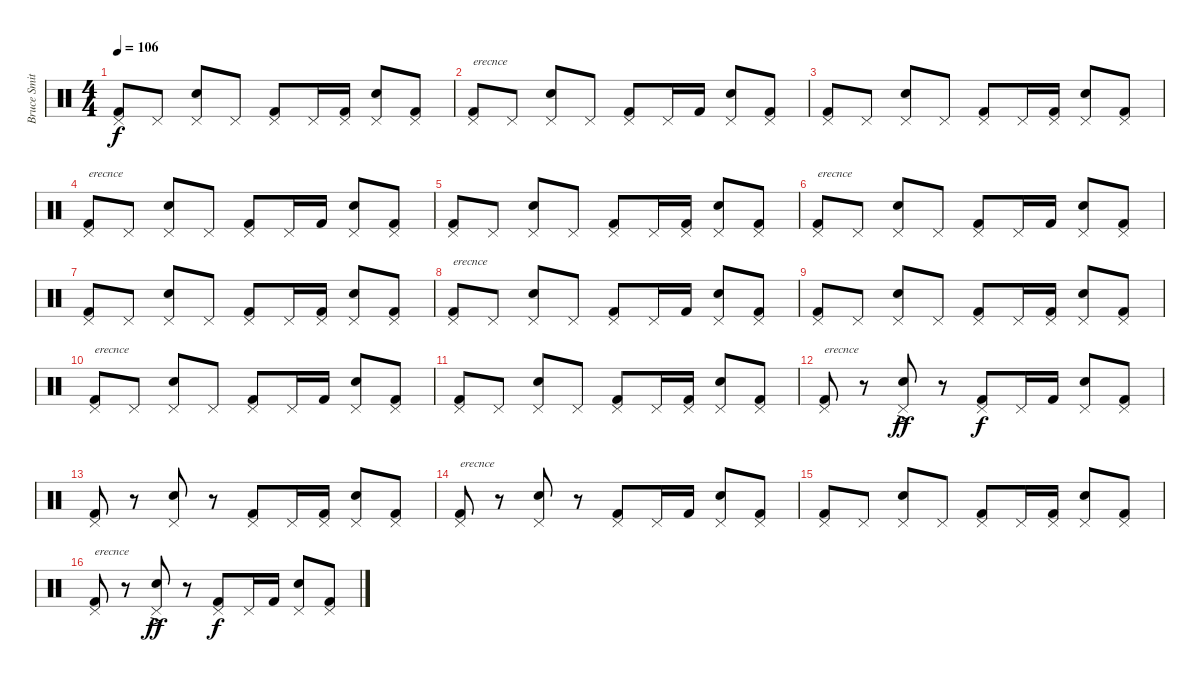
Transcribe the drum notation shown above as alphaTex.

\track ("Bruce Smith" "Bruce Smit") {instrument percussion}
\staff {score}
\articulation defaults
\ts (4 4)
\tempo 106
\clef neutral
\ks c
("Pedal Hi-Hat (hit)" "Kick (hit) 2").8{dy f} "Pedal Hi-Hat (hit)".8 ("Pedal Hi-Hat (hit)" "Snare (hit) 2").8 "Pedal Hi-Hat (hit)".8 ("Pedal Hi-Hat (hit)" "Kick (hit) 2").8 "Pedal Hi-Hat (hit)".16 ("Pedal Hi-Hat (hit)" "Kick (hit) 2").16 ("Pedal Hi-Hat (hit)" "Snare (hit) 2").8 ("Pedal Hi-Hat (hit)" "Kick (hit) 2").8 |
("Pedal Hi-Hat (hit)" "Kick (hit) 2").8{txt "erecnce"} "Pedal Hi-Hat (hit)".8 ("Pedal Hi-Hat (hit)" "Snare (hit) 2").8 "Pedal Hi-Hat (hit)".8 ("Pedal Hi-Hat (hit)" "Kick (hit) 2").8 "Pedal Hi-Hat (hit)".16 "Kick (hit) 2".16 ("Pedal Hi-Hat (hit)" "Snare (hit) 2").8 ("Pedal Hi-Hat (hit)" "Kick (hit) 2").8 |
("Pedal Hi-Hat (hit)" "Kick (hit) 2").8 "Pedal Hi-Hat (hit)".8 ("Pedal Hi-Hat (hit)" "Snare (hit) 2").8 "Pedal Hi-Hat (hit)".8 ("Pedal Hi-Hat (hit)" "Kick (hit) 2").8 "Pedal Hi-Hat (hit)".16 ("Pedal Hi-Hat (hit)" "Kick (hit) 2").16 ("Pedal Hi-Hat (hit)" "Snare (hit) 2").8 ("Pedal Hi-Hat (hit)" "Kick (hit) 2").8 |
("Pedal Hi-Hat (hit)" "Kick (hit) 2").8{txt "erecnce"} "Pedal Hi-Hat (hit)".8 ("Pedal Hi-Hat (hit)" "Snare (hit) 2").8 "Pedal Hi-Hat (hit)".8 ("Pedal Hi-Hat (hit)" "Kick (hit) 2").8 "Pedal Hi-Hat (hit)".16 "Kick (hit) 2".16 ("Pedal Hi-Hat (hit)" "Snare (hit) 2").8 ("Pedal Hi-Hat (hit)" "Kick (hit) 2").8 |
("Pedal Hi-Hat (hit)" "Kick (hit) 2").8 "Pedal Hi-Hat (hit)".8 ("Pedal Hi-Hat (hit)" "Snare (hit) 2").8 "Pedal Hi-Hat (hit)".8 ("Pedal Hi-Hat (hit)" "Kick (hit) 2").8 "Pedal Hi-Hat (hit)".16 ("Pedal Hi-Hat (hit)" "Kick (hit) 2").16 ("Pedal Hi-Hat (hit)" "Snare (hit) 2").8 ("Pedal Hi-Hat (hit)" "Kick (hit) 2").8 |
("Pedal Hi-Hat (hit)" "Kick (hit) 2").8{txt "erecnce"} "Pedal Hi-Hat (hit)".8 ("Pedal Hi-Hat (hit)" "Snare (hit) 2").8 "Pedal Hi-Hat (hit)".8 ("Pedal Hi-Hat (hit)" "Kick (hit) 2").8 "Pedal Hi-Hat (hit)".16 "Kick (hit) 2".16 ("Pedal Hi-Hat (hit)" "Snare (hit) 2").8 ("Pedal Hi-Hat (hit)" "Kick (hit) 2").8 |
("Pedal Hi-Hat (hit)" "Kick (hit) 2").8 "Pedal Hi-Hat (hit)".8 ("Pedal Hi-Hat (hit)" "Snare (hit) 2").8 "Pedal Hi-Hat (hit)".8 ("Pedal Hi-Hat (hit)" "Kick (hit) 2").8 "Pedal Hi-Hat (hit)".16 ("Pedal Hi-Hat (hit)" "Kick (hit) 2").16 ("Pedal Hi-Hat (hit)" "Snare (hit) 2").8 ("Pedal Hi-Hat (hit)" "Kick (hit) 2").8 |
("Pedal Hi-Hat (hit)" "Kick (hit) 2").8{txt "erecnce"} "Pedal Hi-Hat (hit)".8 ("Pedal Hi-Hat (hit)" "Snare (hit) 2").8 "Pedal Hi-Hat (hit)".8 ("Pedal Hi-Hat (hit)" "Kick (hit) 2").8 "Pedal Hi-Hat (hit)".16 "Kick (hit) 2".16 ("Pedal Hi-Hat (hit)" "Snare (hit) 2").8 ("Pedal Hi-Hat (hit)" "Kick (hit) 2").8 |
("Pedal Hi-Hat (hit)" "Kick (hit) 2").8 "Pedal Hi-Hat (hit)".8 ("Pedal Hi-Hat (hit)" "Snare (hit) 2").8 "Pedal Hi-Hat (hit)".8 ("Pedal Hi-Hat (hit)" "Kick (hit) 2").8 "Pedal Hi-Hat (hit)".16 ("Pedal Hi-Hat (hit)" "Kick (hit) 2").16 ("Pedal Hi-Hat (hit)" "Snare (hit) 2").8 ("Pedal Hi-Hat (hit)" "Kick (hit) 2").8 |
("Pedal Hi-Hat (hit)" "Kick (hit) 2").8{txt "erecnce"} "Pedal Hi-Hat (hit)".8 ("Pedal Hi-Hat (hit)" "Snare (hit) 2").8 "Pedal Hi-Hat (hit)".8 ("Pedal Hi-Hat (hit)" "Kick (hit) 2").8 "Pedal Hi-Hat (hit)".16 "Kick (hit) 2".16 ("Pedal Hi-Hat (hit)" "Snare (hit) 2").8 ("Pedal Hi-Hat (hit)" "Kick (hit) 2").8 |
("Pedal Hi-Hat (hit)" "Kick (hit) 2").8 "Pedal Hi-Hat (hit)".8 ("Pedal Hi-Hat (hit)" "Snare (hit) 2").8 "Pedal Hi-Hat (hit)".8 ("Pedal Hi-Hat (hit)" "Kick (hit) 2").8 "Pedal Hi-Hat (hit)".16 ("Pedal Hi-Hat (hit)" "Kick (hit) 2").16 ("Pedal Hi-Hat (hit)" "Snare (hit) 2").8 ("Pedal Hi-Hat (hit)" "Kick (hit) 2").8 |
("Pedal Hi-Hat (hit)" "Kick (hit) 2").8{txt "erecnce"} r.8 ("Pedal Hi-Hat (hit)" "Snare (hit) 2"{ac}).8{dy ff} r.8 ("Pedal Hi-Hat (hit)" "Kick (hit) 2").8{dy f} "Pedal Hi-Hat (hit)".16 "Kick (hit) 2".16 ("Pedal Hi-Hat (hit)" "Snare (hit) 2").8 ("Pedal Hi-Hat (hit)" "Kick (hit) 2").8 |
("Pedal Hi-Hat (hit)" "Kick (hit) 2").8 r.8 ("Pedal Hi-Hat (hit)" "Snare (hit) 2").8 r.8 ("Pedal Hi-Hat (hit)" "Kick (hit) 2").8 "Pedal Hi-Hat (hit)".16 ("Pedal Hi-Hat (hit)" "Kick (hit) 2").16 ("Pedal Hi-Hat (hit)" "Snare (hit) 2").8 ("Pedal Hi-Hat (hit)" "Kick (hit) 2").8 |
("Pedal Hi-Hat (hit)" "Kick (hit) 2").8{txt "erecnce"} r.8 ("Pedal Hi-Hat (hit)" "Snare (hit) 2").8 r.8 ("Pedal Hi-Hat (hit)" "Kick (hit) 2").8 "Pedal Hi-Hat (hit)".16 "Kick (hit) 2".16 ("Pedal Hi-Hat (hit)" "Snare (hit) 2").8 ("Pedal Hi-Hat (hit)" "Kick (hit) 2").8 |
("Pedal Hi-Hat (hit)" "Kick (hit) 2").8 "Pedal Hi-Hat (hit)".8 ("Pedal Hi-Hat (hit)" "Snare (hit) 2").8 "Pedal Hi-Hat (hit)".8 ("Pedal Hi-Hat (hit)" "Kick (hit) 2").8 "Pedal Hi-Hat (hit)".16 ("Pedal Hi-Hat (hit)" "Kick (hit) 2").16 ("Pedal Hi-Hat (hit)" "Snare (hit) 2").8 ("Pedal Hi-Hat (hit)" "Kick (hit) 2").8 |
("Pedal Hi-Hat (hit)" "Kick (hit) 2").8{txt "erecnce"} r.8 ("Pedal Hi-Hat (hit)" "Snare (hit) 2"{ac}).8{dy ff} r.8 ("Pedal Hi-Hat (hit)" "Kick (hit) 2").8{dy f} "Pedal Hi-Hat (hit)".16 "Kick (hit) 2".16 ("Pedal Hi-Hat (hit)" "Snare (hit) 2").8 ("Pedal Hi-Hat (hit)" "Kick (hit) 2").8
